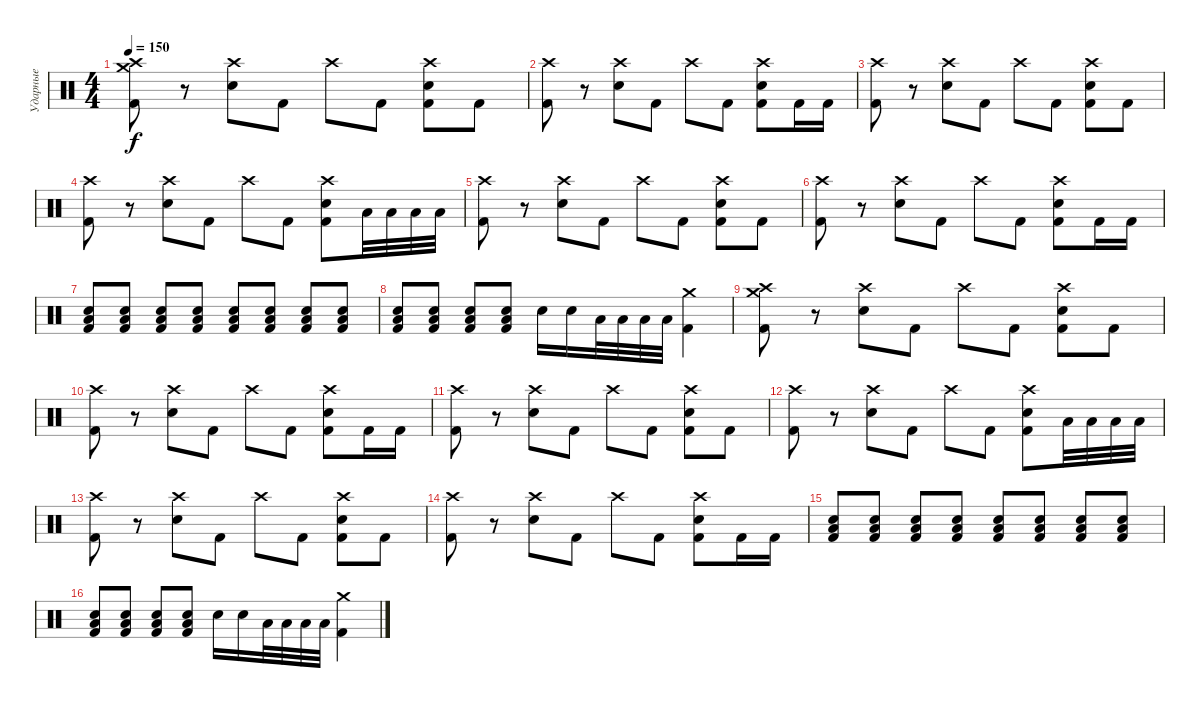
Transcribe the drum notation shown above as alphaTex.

\track ("Ударные" "Ударные") {instrument percussion}
\staff {score}
\articulation defaults
\ts (4 4)
\tempo 150
\clef neutral
\ks c
("Crash medium (hit)" "Crash high (hit)" "Kick (hit) 2").8{dy f} r.8 ("Crash high (hit)" "Electric Snare (hit)").8 "Kick (hit) 2".8 "Crash high (hit)".8 "Kick (hit) 2".8 ("Crash high (hit)" "Electric Snare (hit)" "Kick (hit) 2").8 "Kick (hit) 2".8 |
("Crash high (hit)" "Kick (hit) 2").8 r.8 ("Crash high (hit)" "Electric Snare (hit)").8 "Kick (hit) 2".8 "Crash high (hit)".8 "Kick (hit) 2".8 ("Crash high (hit)" "Electric Snare (hit)" "Kick (hit) 2").8 "Kick (hit) 2".16 "Kick (hit) 2".16 |
("Crash high (hit)" "Kick (hit) 2").8 r.8 ("Crash high (hit)" "Electric Snare (hit)").8 "Kick (hit) 2".8 "Crash high (hit)".8 "Kick (hit) 2".8 ("Crash high (hit)" "Electric Snare (hit)" "Kick (hit) 2").8 "Kick (hit) 2".8 |
("Crash high (hit)" "Kick (hit) 2").8 r.8 ("Crash high (hit)" "Electric Snare (hit)").8 "Kick (hit) 2".8 "Crash high (hit)".8 "Kick (hit) 2".8 ("Crash high (hit)" "Electric Snare (hit)" "Kick (hit) 2").8 "Low Tom (hit)".32 "Low Tom (hit)".32 "Low Floor Tom (hit)".32 "Low Floor Tom (hit)".32 |
("Crash high (hit)" "Kick (hit) 2").8 r.8 ("Crash high (hit)" "Electric Snare (hit)").8 "Kick (hit) 2".8 "Crash high (hit)".8 "Kick (hit) 2".8 ("Crash high (hit)" "Electric Snare (hit)" "Kick (hit) 2").8 "Kick (hit) 2".8 |
("Crash high (hit)" "Kick (hit) 2").8 r.8 ("Crash high (hit)" "Electric Snare (hit)").8 "Kick (hit) 2".8 "Crash high (hit)".8 "Kick (hit) 2".8 ("Crash high (hit)" "Electric Snare (hit)" "Kick (hit) 2").8 "Kick (hit) 2".16 "Kick (hit) 2".16 |
("Low Floor Tom (hit)" "Electric Snare (hit)" "Kick (hit) 2").8 ("Low Floor Tom (hit)" "Electric Snare (hit)" "Kick (hit) 2").8 ("Low Floor Tom (hit)" "Electric Snare (hit)" "Kick (hit) 2").8 ("Low Floor Tom (hit)" "Electric Snare (hit)" "Kick (hit) 2").8 ("Low Floor Tom (hit)" "Electric Snare (hit)" "Kick (hit) 2").8 ("Low Floor Tom (hit)" "Electric Snare (hit)" "Kick (hit) 2").8 ("Low Floor Tom (hit)" "Electric Snare (hit)" "Kick (hit) 2").8 ("Low Floor Tom (hit)" "Electric Snare (hit)" "Kick (hit) 2").8 |
("Low Floor Tom (hit)" "Electric Snare (hit)" "Kick (hit) 2").8 ("Low Floor Tom (hit)" "Electric Snare (hit)" "Kick (hit) 2").8 ("Low Floor Tom (hit)" "Electric Snare (hit)" "Kick (hit) 2").8 ("Low Floor Tom (hit)" "Electric Snare (hit)" "Kick (hit) 2").8 "Electric Snare (hit)".16 "Electric Snare (hit)".16 "Low Tom (hit)".32 "Low Tom (hit)".32 "Low Floor Tom (hit)".32 "Low Floor Tom (hit)".32 ("Crash medium (hit)" "Kick (hit) 2").4 |
("Crash medium (hit)" "Crash high (hit)" "Kick (hit) 2").8 r.8 ("Crash high (hit)" "Electric Snare (hit)").8 "Kick (hit) 2".8 "Crash high (hit)".8 "Kick (hit) 2".8 ("Crash high (hit)" "Electric Snare (hit)" "Kick (hit) 2").8 "Kick (hit) 2".8 |
("Crash high (hit)" "Kick (hit) 2").8 r.8 ("Crash high (hit)" "Electric Snare (hit)").8 "Kick (hit) 2".8 "Crash high (hit)".8 "Kick (hit) 2".8 ("Crash high (hit)" "Electric Snare (hit)" "Kick (hit) 2").8 "Kick (hit) 2".16 "Kick (hit) 2".16 |
("Crash high (hit)" "Kick (hit) 2").8 r.8 ("Crash high (hit)" "Electric Snare (hit)").8 "Kick (hit) 2".8 "Crash high (hit)".8 "Kick (hit) 2".8 ("Crash high (hit)" "Electric Snare (hit)" "Kick (hit) 2").8 "Kick (hit) 2".8 |
("Crash high (hit)" "Kick (hit) 2").8 r.8 ("Crash high (hit)" "Electric Snare (hit)").8 "Kick (hit) 2".8 "Crash high (hit)".8 "Kick (hit) 2".8 ("Crash high (hit)" "Electric Snare (hit)" "Kick (hit) 2").8 "Low Tom (hit)".32 "Low Tom (hit)".32 "Low Floor Tom (hit)".32 "Low Floor Tom (hit)".32 |
("Crash high (hit)" "Kick (hit) 2").8 r.8 ("Crash high (hit)" "Electric Snare (hit)").8 "Kick (hit) 2".8 "Crash high (hit)".8 "Kick (hit) 2".8 ("Crash high (hit)" "Electric Snare (hit)" "Kick (hit) 2").8 "Kick (hit) 2".8 |
("Crash high (hit)" "Kick (hit) 2").8 r.8 ("Crash high (hit)" "Electric Snare (hit)").8 "Kick (hit) 2".8 "Crash high (hit)".8 "Kick (hit) 2".8 ("Crash high (hit)" "Electric Snare (hit)" "Kick (hit) 2").8 "Kick (hit) 2".16 "Kick (hit) 2".16 |
("Low Floor Tom (hit)" "Electric Snare (hit)" "Kick (hit) 2").8 ("Low Floor Tom (hit)" "Electric Snare (hit)" "Kick (hit) 2").8 ("Low Floor Tom (hit)" "Electric Snare (hit)" "Kick (hit) 2").8 ("Low Floor Tom (hit)" "Electric Snare (hit)" "Kick (hit) 2").8 ("Low Floor Tom (hit)" "Electric Snare (hit)" "Kick (hit) 2").8 ("Low Floor Tom (hit)" "Electric Snare (hit)" "Kick (hit) 2").8 ("Low Floor Tom (hit)" "Electric Snare (hit)" "Kick (hit) 2").8 ("Low Floor Tom (hit)" "Electric Snare (hit)" "Kick (hit) 2").8 |
("Low Floor Tom (hit)" "Electric Snare (hit)" "Kick (hit) 2").8 ("Low Floor Tom (hit)" "Electric Snare (hit)" "Kick (hit) 2").8 ("Low Floor Tom (hit)" "Electric Snare (hit)" "Kick (hit) 2").8 ("Low Floor Tom (hit)" "Electric Snare (hit)" "Kick (hit) 2").8 "Electric Snare (hit)".16 "Electric Snare (hit)".16 "Low Tom (hit)".32 "Low Tom (hit)".32 "Low Floor Tom (hit)".32 "Low Floor Tom (hit)".32 ("Crash medium (hit)" "Kick (hit) 2").4
